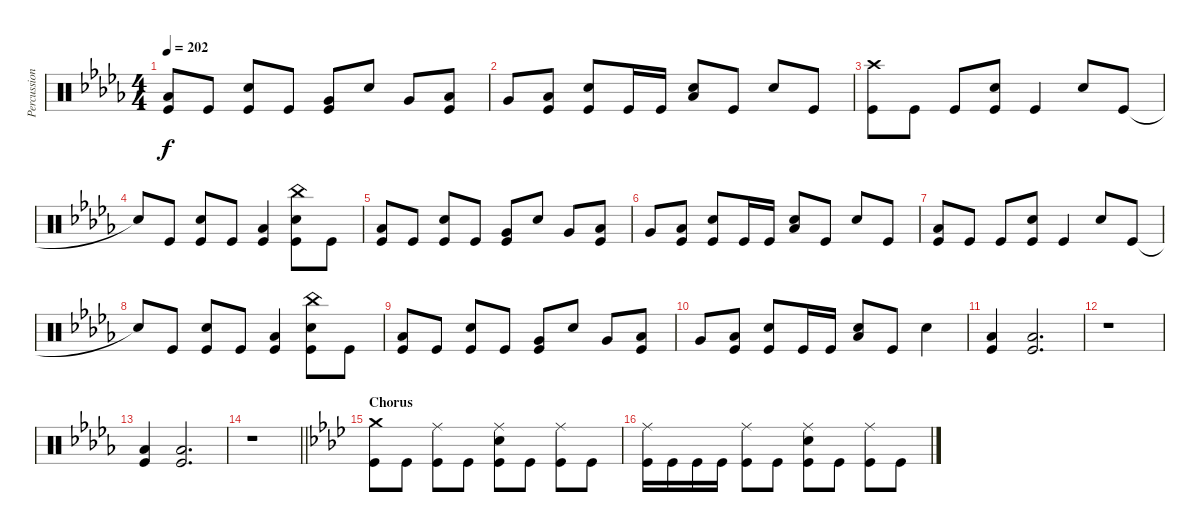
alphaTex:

\track ("Percussion" "Percussion") {instrument percussion}
\staff {score}
\articulation defaults
\ts (4 4)
\tempo 202
\clef neutral
\ks db
("Low Tom (hit)" "Kick (hit)").8{dy f} "Kick (hit)".8 ("Electric Snare (hit)" "Kick (hit)").8 "Kick (hit)".8 ("Very Low Tom (hit)" "Kick (hit)").8 "Electric Snare (hit)".8 "Very Low Tom (hit)".8 ("Low Floor Tom (hit)" "Kick (hit)").8 |
"Very Low Tom (hit)".8 ("Low Floor Tom (hit)" "Kick (hit)").8 ("Electric Snare (hit)" "Kick (hit)").8 "Kick (hit)".16 "Kick (hit)".16 ("Low Tom (hit)" "Electric Snare (hit)").8 "Kick (hit)".8 "Electric Snare (hit)".8 "Kick (hit)".8 |
("Crash high (hit)" "Kick (hit)").8 "Kick (hit)".8 "Kick (hit)".8 ("Electric Snare (hit)" "Kick (hit)").8 "Kick (hit)".4 "Electric Snare (hit)".8 "Kick (hit)".8 |
"Snare (hit)"{t}.8 "Kick (hit)".8 ("Electric Snare (hit)" "Kick (hit)").8 "Kick (hit)".8 ("Low Tom (hit)" "Kick (hit)").4 ("China (hit)" "Electric Snare (hit)" "Kick (hit)").8 "Kick (hit)".8 |
("Low Tom (hit)" "Kick (hit)").8 "Kick (hit)".8 ("Electric Snare (hit)" "Kick (hit)").8 "Kick (hit)".8 ("Very Low Tom (hit)" "Kick (hit)").8 "Electric Snare (hit)".8 "Very Low Tom (hit)".8 ("Low Floor Tom (hit)" "Kick (hit)").8 |
"Very Low Tom (hit)".8 ("Low Floor Tom (hit)" "Kick (hit)").8 ("Electric Snare (hit)" "Kick (hit)").8 "Kick (hit)".16 "Kick (hit)".16 ("Low Tom (hit)" "Electric Snare (hit)").8 "Kick (hit)".8 "Electric Snare (hit)".8 "Kick (hit)".8 |
("Low Tom (hit)" "Kick (hit)").8 "Kick (hit)".8 "Kick (hit)".8 ("Electric Snare (hit)" "Kick (hit)").8 "Kick (hit)".4 "Electric Snare (hit)".8 "Kick (hit)".8 |
"Snare (hit)"{t}.8 "Kick (hit)".8 ("Electric Snare (hit)" "Kick (hit)").8 "Kick (hit)".8 ("Low Tom (hit)" "Kick (hit)").4 ("China (hit)" "Electric Snare (hit)" "Kick (hit)").8 "Kick (hit)".8 |
("Low Tom (hit)" "Kick (hit)").8 "Kick (hit)".8 ("Electric Snare (hit)" "Kick (hit)").8 "Kick (hit)".8 ("Very Low Tom (hit)" "Kick (hit)").8 "Electric Snare (hit)".8 "Very Low Tom (hit)".8 ("Low Floor Tom (hit)" "Kick (hit)").8 |
"Very Low Tom (hit)".8 ("Low Floor Tom (hit)" "Kick (hit)").8 ("Electric Snare (hit)" "Kick (hit)").8 "Kick (hit)".16 "Kick (hit)".16 ("Low Tom (hit)" "Electric Snare (hit)").8 "Kick (hit)".8 "Electric Snare (hit)".4 |
("Low Floor Tom (hit)" "Kick (hit)").4 ("Low Floor Tom (hit)" "Kick (hit)").2{d} |
r.1 |
("Low Floor Tom (hit)" "Kick (hit)").4 ("Low Floor Tom (hit)" "Kick (hit)").2{d} |
\barLineRight lightlight
r.1 |
\section ("" "Chorus")
\ks ab
("Crash medium (hit)" "Kick (hit)").8 "Kick (hit)".8 ("Ride (middle)" "Kick (hit)").8 "Kick (hit)".8 ("Ride (middle)" "Electric Snare (hit)" "Kick (hit)").8 "Kick (hit)".8 ("Ride (middle)" "Kick (hit)").8 "Kick (hit)".8 |
("Ride (middle)" "Kick (hit)").16 "Kick (hit)".16 "Kick (hit)".16 "Kick (hit)".16 ("Ride (middle)" "Kick (hit)").8 "Kick (hit)".8 ("Ride (middle)" "Electric Snare (hit)" "Kick (hit)").8 "Kick (hit)".8 ("Ride (middle)" "Kick (hit)").8 "Kick (hit)".8
